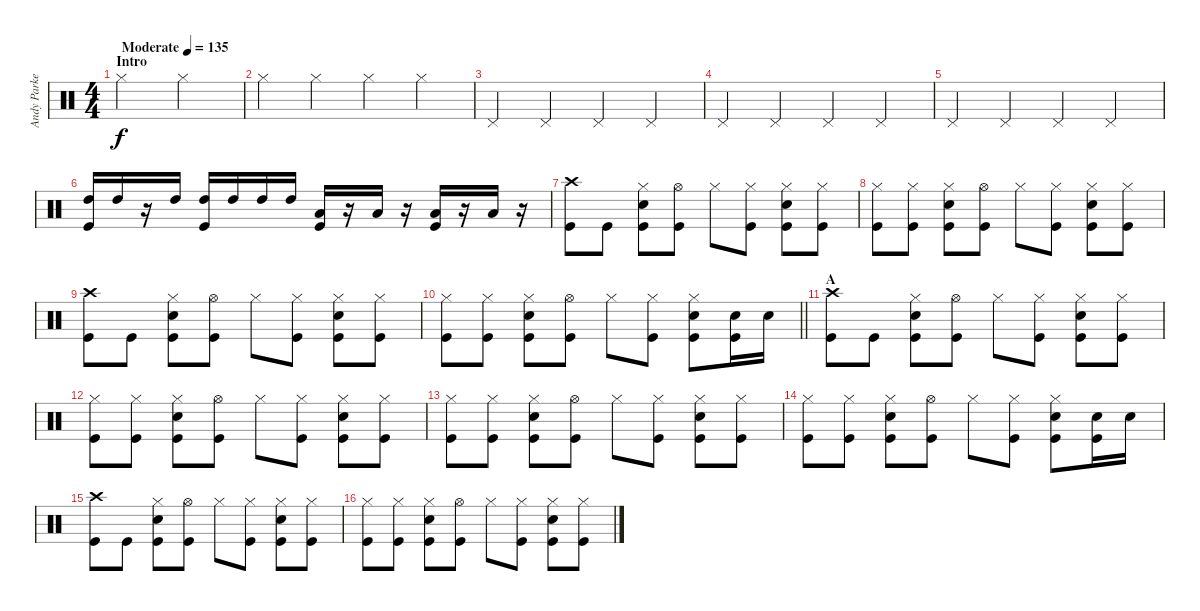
\track ("Andy Parker" "Andy Parke") {instrument percussion}
\staff {score}
\articulation defaults
\ts (4 4)
\section ("" "Intro")
\tempo (135 "Moderate")
\clef neutral
\ks c "Hi-Hat (closed)".2{dy f} "Hi-Hat (closed)".2
|
"Hi-Hat (closed)".4 "Hi-Hat (closed)".4 "Hi-Hat (closed)".4 "Hi-Hat (closed)".4 |
"Pedal Hi-Hat (hit)".4 "Pedal Hi-Hat (hit)".4 "Pedal Hi-Hat (hit)".4 "Pedal Hi-Hat (hit)".4 |
"Pedal Hi-Hat (hit)".4 "Pedal Hi-Hat (hit)".4 "Pedal Hi-Hat (hit)".4 "Pedal Hi-Hat (hit)".4 |
"Pedal Hi-Hat (hit)".4 "Pedal Hi-Hat (hit)".4 "Pedal Hi-Hat (hit)".4 "Pedal Hi-Hat (hit)".4 |
("High Tom (hit)" "Kick (hit)").16 "High Tom (hit)".16 r.16 "High Tom (hit)".16 ("High Tom (hit)" "Kick (hit)").16 "High Tom (hit)".16 "High Tom (hit)".16 "High Tom (hit)".16 ("Low Floor Tom (hit)" "Kick (hit)").16 r.16 "Low Floor Tom (hit)".16 r.16 ("Low Floor Tom (hit)" "Kick (hit)").16 r.16 "Low Floor Tom (hit)".16 r.16 |
("Crash high (hit)" "Kick (hit)").8 "Kick (hit)".8 ("Hi-Hat (closed)" "Snare (hit) 2" "Kick (hit)").8 ("Hi-Hat (open)" "Kick (hit)").8 "Hi-Hat (closed)".8 ("Hi-Hat (closed)" "Kick (hit)").8 ("Hi-Hat (closed)" "Snare (hit) 2" "Kick (hit)").8 ("Hi-Hat (closed)" "Kick (hit)").8 |
("Hi-Hat (closed)" "Kick (hit)").8 ("Hi-Hat (closed)" "Kick (hit)").8 ("Hi-Hat (closed)" "Snare (hit) 2" "Kick (hit)").8 ("Hi-Hat (open)" "Kick (hit)").8 "Hi-Hat (closed)".8 ("Hi-Hat (closed)" "Kick (hit)").8 ("Hi-Hat (closed)" "Snare (hit) 2" "Kick (hit)").8 ("Hi-Hat (closed)" "Kick (hit)").8 |
("Crash high (hit)" "Kick (hit)").8 "Kick (hit)".8 ("Hi-Hat (closed)" "Snare (hit) 2" "Kick (hit)").8 ("Hi-Hat (open)" "Kick (hit)").8 "Hi-Hat (closed)".8 ("Hi-Hat (closed)" "Kick (hit)").8 ("Hi-Hat (closed)" "Snare (hit) 2" "Kick (hit)").8 ("Hi-Hat (closed)" "Kick (hit)").8 |
\barLineRight lightlight
("Hi-Hat (closed)" "Kick (hit)").8 ("Hi-Hat (closed)" "Kick (hit)").8 ("Hi-Hat (closed)" "Snare (hit) 2" "Kick (hit)").8 ("Hi-Hat (open)" "Kick (hit)").8 "Hi-Hat (closed)".8 ("Hi-Hat (closed)" "Kick (hit)").8 ("Hi-Hat (closed)" "Snare (hit) 2" "Kick (hit)").8 ("Snare (hit) 2" "Kick (hit)").16 "Snare (hit) 2".16 |
\section ("" "A")
("Crash high (hit)" "Kick (hit)").8 "Kick (hit)".8 ("Hi-Hat (closed)" "Snare (hit) 2" "Kick (hit)").8 ("Hi-Hat (open)" "Kick (hit)").8 "Hi-Hat (closed)".8 ("Hi-Hat (closed)" "Kick (hit)").8 ("Hi-Hat (closed)" "Snare (hit) 2" "Kick (hit)").8 ("Hi-Hat (closed)" "Kick (hit)").8 |
("Hi-Hat (closed)" "Kick (hit)").8 ("Hi-Hat (closed)" "Kick (hit)").8 ("Hi-Hat (closed)" "Snare (hit) 2" "Kick (hit)").8 ("Hi-Hat (open)" "Kick (hit)").8 "Hi-Hat (closed)".8 ("Hi-Hat (closed)" "Kick (hit)").8 ("Hi-Hat (closed)" "Snare (hit) 2" "Kick (hit)").8 ("Hi-Hat (closed)" "Kick (hit)").8 |
("Hi-Hat (closed)" "Kick (hit)").8 ("Hi-Hat (closed)" "Kick (hit)").8 ("Hi-Hat (closed)" "Snare (hit) 2" "Kick (hit)").8 ("Hi-Hat (open)" "Kick (hit)").8 "Hi-Hat (closed)".8 ("Hi-Hat (closed)" "Kick (hit)").8 ("Hi-Hat (closed)" "Snare (hit) 2" "Kick (hit)").8 ("Hi-Hat (closed)" "Kick (hit)").8 |
("Hi-Hat (closed)" "Kick (hit)").8 ("Hi-Hat (closed)" "Kick (hit)").8 ("Hi-Hat (closed)" "Snare (hit) 2" "Kick (hit)").8 ("Hi-Hat (open)" "Kick (hit)").8 "Hi-Hat (closed)".8 ("Hi-Hat (closed)" "Kick (hit)").8 ("Hi-Hat (closed)" "Snare (hit) 2" "Kick (hit)").8 ("Snare (hit) 2" "Kick (hit)").16 "Snare (hit) 2".16 |
("Crash high (hit)" "Kick (hit)").8 "Kick (hit)".8 ("Hi-Hat (closed)" "Snare (hit) 2" "Kick (hit)").8 ("Hi-Hat (open)" "Kick (hit)").8 "Hi-Hat (closed)".8 ("Hi-Hat (closed)" "Kick (hit)").8 ("Hi-Hat (closed)" "Snare (hit) 2" "Kick (hit)").8 ("Hi-Hat (closed)" "Kick (hit)").8 |
("Hi-Hat (closed)" "Kick (hit)").8 ("Hi-Hat (closed)" "Kick (hit)").8 ("Hi-Hat (closed)" "Snare (hit) 2" "Kick (hit)").8 ("Hi-Hat (open)" "Kick (hit)").8 "Hi-Hat (closed)".8 ("Hi-Hat (closed)" "Kick (hit)").8 ("Hi-Hat (closed)" "Snare (hit) 2" "Kick (hit)").8 ("Hi-Hat (closed)" "Kick (hit)").8
